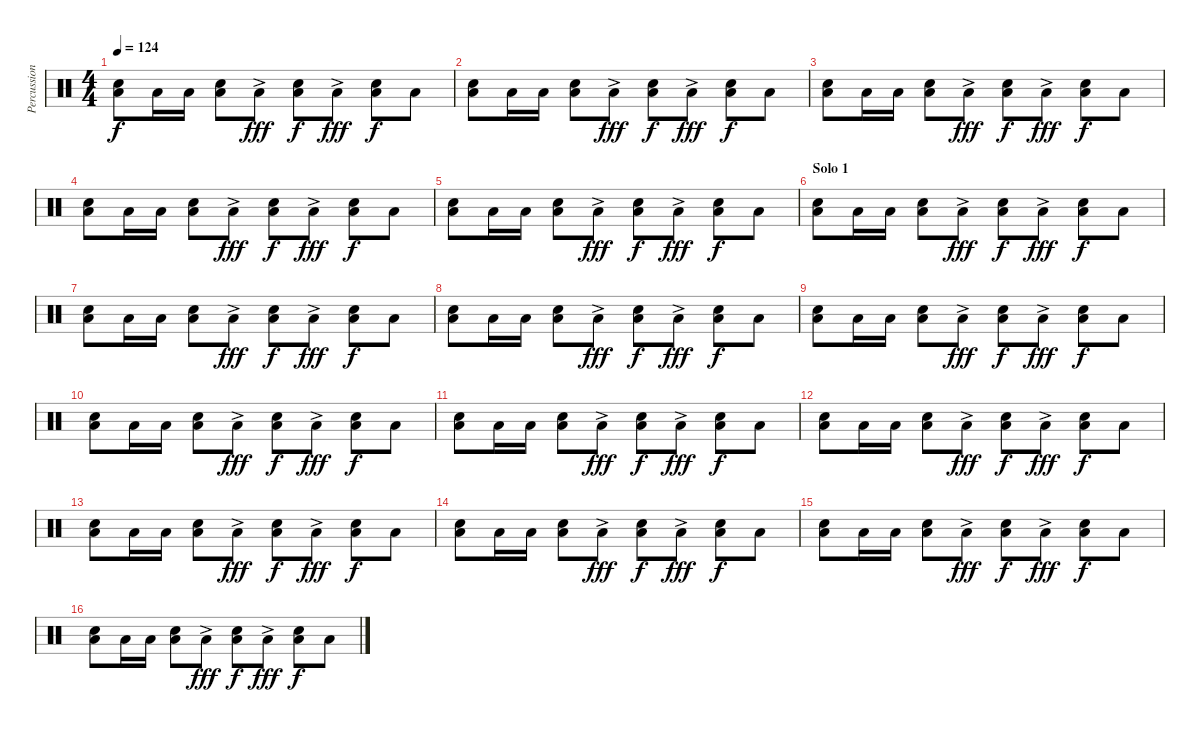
\track ("Percussion" "Percussion") {instrument percussion}
\staff {score}
\articulation defaults
\ts (4 4)
\tempo 124
\clef neutral
\ks c
("Low Floor Tom (hit)" "Snare (hit) 2").8{dy f} "Low Floor Tom (hit)".16 "Low Floor Tom (hit)".16 ("Low Floor Tom (hit)" "Snare (hit) 2").8 "Low Floor Tom (hit)"{ac}.8{dy fff} ("Low Floor Tom (hit)" "Snare (hit) 2").8{dy f} "Low Floor Tom (hit)"{ac}.8{dy fff} ("Low Floor Tom (hit)" "Snare (hit) 2").8{dy f} "Low Floor Tom (hit)".8 |
("Low Floor Tom (hit)" "Snare (hit) 2").8 "Low Floor Tom (hit)".16 "Low Floor Tom (hit)".16 ("Low Floor Tom (hit)" "Snare (hit) 2").8 "Low Floor Tom (hit)"{ac}.8{dy fff} ("Low Floor Tom (hit)" "Snare (hit) 2").8{dy f} "Low Floor Tom (hit)"{ac}.8{dy fff} ("Low Floor Tom (hit)" "Snare (hit) 2").8{dy f} "Low Floor Tom (hit)".8 |
("Low Floor Tom (hit)" "Snare (hit) 2").8 "Low Floor Tom (hit)".16 "Low Floor Tom (hit)".16 ("Low Floor Tom (hit)" "Snare (hit) 2").8 "Low Floor Tom (hit)"{ac}.8{dy fff} ("Low Floor Tom (hit)" "Snare (hit) 2").8{dy f} "Low Floor Tom (hit)"{ac}.8{dy fff} ("Low Floor Tom (hit)" "Snare (hit) 2").8{dy f} "Low Floor Tom (hit)".8 |
("Low Floor Tom (hit)" "Snare (hit) 2").8 "Low Floor Tom (hit)".16 "Low Floor Tom (hit)".16 ("Low Floor Tom (hit)" "Snare (hit) 2").8 "Low Floor Tom (hit)"{ac}.8{dy fff} ("Low Floor Tom (hit)" "Snare (hit) 2").8{dy f} "Low Floor Tom (hit)"{ac}.8{dy fff} ("Low Floor Tom (hit)" "Snare (hit) 2").8{dy f} "Low Floor Tom (hit)".8 |
("Low Floor Tom (hit)" "Snare (hit) 2").8 "Low Floor Tom (hit)".16 "Low Floor Tom (hit)".16 ("Low Floor Tom (hit)" "Snare (hit) 2").8 "Low Floor Tom (hit)"{ac}.8{dy fff} ("Low Floor Tom (hit)" "Snare (hit) 2").8{dy f} "Low Floor Tom (hit)"{ac}.8{dy fff} ("Low Floor Tom (hit)" "Snare (hit) 2").8{dy f} "Low Floor Tom (hit)".8 |
\section ("" "Solo 1")
("Low Floor Tom (hit)" "Snare (hit) 2").8 "Low Floor Tom (hit)".16 "Low Floor Tom (hit)".16 ("Low Floor Tom (hit)" "Snare (hit) 2").8 "Low Floor Tom (hit)"{ac}.8{dy fff} ("Low Floor Tom (hit)" "Snare (hit) 2").8{dy f} "Low Floor Tom (hit)"{ac}.8{dy fff} ("Low Floor Tom (hit)" "Snare (hit) 2").8{dy f} "Low Floor Tom (hit)".8 |
("Low Floor Tom (hit)" "Snare (hit) 2").8 "Low Floor Tom (hit)".16 "Low Floor Tom (hit)".16 ("Low Floor Tom (hit)" "Snare (hit) 2").8 "Low Floor Tom (hit)"{ac}.8{dy fff} ("Low Floor Tom (hit)" "Snare (hit) 2").8{dy f} "Low Floor Tom (hit)"{ac}.8{dy fff} ("Low Floor Tom (hit)" "Snare (hit) 2").8{dy f} "Low Floor Tom (hit)".8 |
("Low Floor Tom (hit)" "Snare (hit) 2").8 "Low Floor Tom (hit)".16 "Low Floor Tom (hit)".16 ("Low Floor Tom (hit)" "Snare (hit) 2").8 "Low Floor Tom (hit)"{ac}.8{dy fff} ("Low Floor Tom (hit)" "Snare (hit) 2").8{dy f} "Low Floor Tom (hit)"{ac}.8{dy fff} ("Low Floor Tom (hit)" "Snare (hit) 2").8{dy f} "Low Floor Tom (hit)".8 |
("Low Floor Tom (hit)" "Snare (hit) 2").8 "Low Floor Tom (hit)".16 "Low Floor Tom (hit)".16 ("Low Floor Tom (hit)" "Snare (hit) 2").8 "Low Floor Tom (hit)"{ac}.8{dy fff} ("Low Floor Tom (hit)" "Snare (hit) 2").8{dy f} "Low Floor Tom (hit)"{ac}.8{dy fff} ("Low Floor Tom (hit)" "Snare (hit) 2").8{dy f} "Low Floor Tom (hit)".8 |
("Low Floor Tom (hit)" "Snare (hit) 2").8 "Low Floor Tom (hit)".16 "Low Floor Tom (hit)".16 ("Low Floor Tom (hit)" "Snare (hit) 2").8 "Low Floor Tom (hit)"{ac}.8{dy fff} ("Low Floor Tom (hit)" "Snare (hit) 2").8{dy f} "Low Floor Tom (hit)"{ac}.8{dy fff} ("Low Floor Tom (hit)" "Snare (hit) 2").8{dy f} "Low Floor Tom (hit)".8 |
("Low Floor Tom (hit)" "Snare (hit) 2").8 "Low Floor Tom (hit)".16 "Low Floor Tom (hit)".16 ("Low Floor Tom (hit)" "Snare (hit) 2").8 "Low Floor Tom (hit)"{ac}.8{dy fff} ("Low Floor Tom (hit)" "Snare (hit) 2").8{dy f} "Low Floor Tom (hit)"{ac}.8{dy fff} ("Low Floor Tom (hit)" "Snare (hit) 2").8{dy f} "Low Floor Tom (hit)".8 |
("Low Floor Tom (hit)" "Snare (hit) 2").8 "Low Floor Tom (hit)".16 "Low Floor Tom (hit)".16 ("Low Floor Tom (hit)" "Snare (hit) 2").8 "Low Floor Tom (hit)"{ac}.8{dy fff} ("Low Floor Tom (hit)" "Snare (hit) 2").8{dy f} "Low Floor Tom (hit)"{ac}.8{dy fff} ("Low Floor Tom (hit)" "Snare (hit) 2").8{dy f} "Low Floor Tom (hit)".8 |
("Low Floor Tom (hit)" "Snare (hit) 2").8 "Low Floor Tom (hit)".16 "Low Floor Tom (hit)".16 ("Low Floor Tom (hit)" "Snare (hit) 2").8 "Low Floor Tom (hit)"{ac}.8{dy fff} ("Low Floor Tom (hit)" "Snare (hit) 2").8{dy f} "Low Floor Tom (hit)"{ac}.8{dy fff} ("Low Floor Tom (hit)" "Snare (hit) 2").8{dy f} "Low Floor Tom (hit)".8 |
("Low Floor Tom (hit)" "Snare (hit) 2").8 "Low Floor Tom (hit)".16 "Low Floor Tom (hit)".16 ("Low Floor Tom (hit)" "Snare (hit) 2").8 "Low Floor Tom (hit)"{ac}.8{dy fff} ("Low Floor Tom (hit)" "Snare (hit) 2").8{dy f} "Low Floor Tom (hit)"{ac}.8{dy fff} ("Low Floor Tom (hit)" "Snare (hit) 2").8{dy f} "Low Floor Tom (hit)".8 |
("Low Floor Tom (hit)" "Snare (hit) 2").8 "Low Floor Tom (hit)".16 "Low Floor Tom (hit)".16 ("Low Floor Tom (hit)" "Snare (hit) 2").8 "Low Floor Tom (hit)"{ac}.8{dy fff} ("Low Floor Tom (hit)" "Snare (hit) 2").8{dy f} "Low Floor Tom (hit)"{ac}.8{dy fff} ("Low Floor Tom (hit)" "Snare (hit) 2").8{dy f} "Low Floor Tom (hit)".8 |
("Low Floor Tom (hit)" "Snare (hit) 2").8 "Low Floor Tom (hit)".16 "Low Floor Tom (hit)".16 ("Low Floor Tom (hit)" "Snare (hit) 2").8 "Low Floor Tom (hit)"{ac}.8{dy fff} ("Low Floor Tom (hit)" "Snare (hit) 2").8{dy f} "Low Floor Tom (hit)"{ac}.8{dy fff} ("Low Floor Tom (hit)" "Snare (hit) 2").8{dy f} "Low Floor Tom (hit)".8
